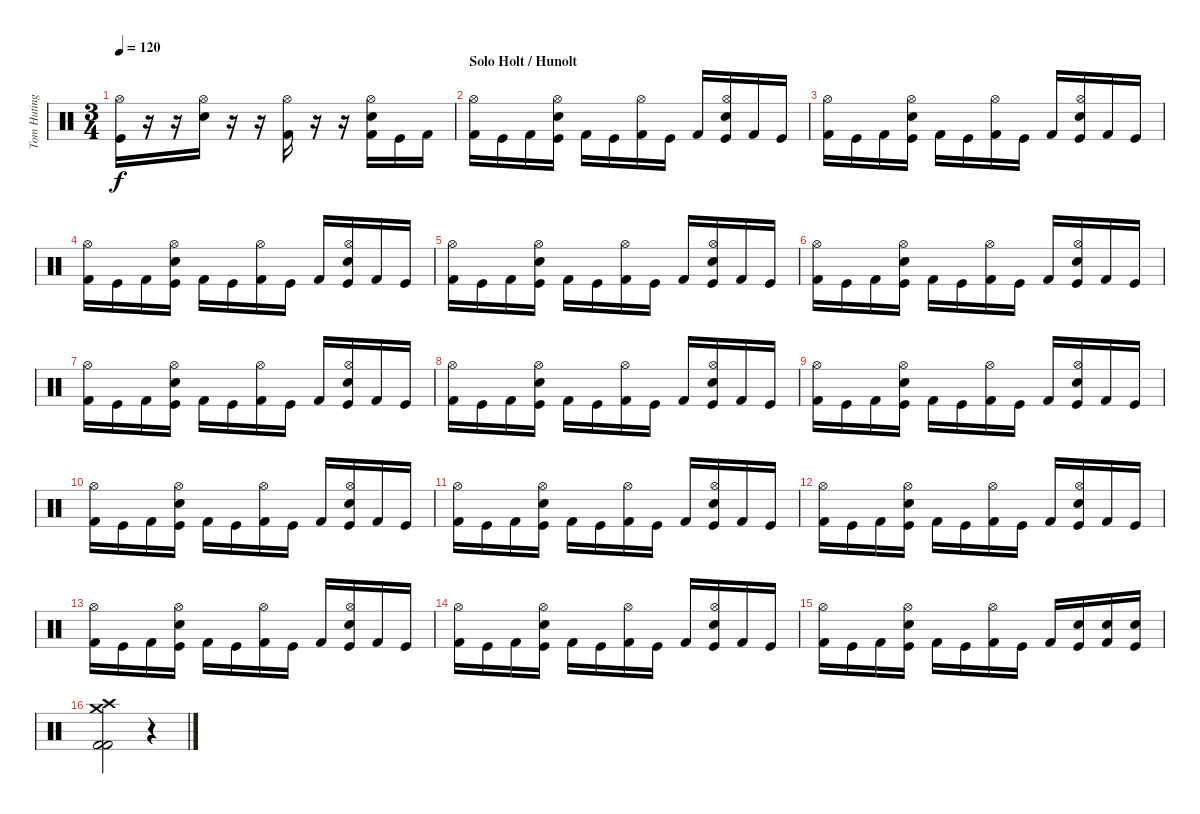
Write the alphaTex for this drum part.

\track ("Tom Huting" "Tom Huting") {instrument percussion}
\staff {score}
\articulation defaults
\ts (3 4)
\tempo 120
\clef neutral
\ks c
("Kick (hit)" "Hi-Hat (open)").16{dy f} r.16 r.16 ("Snare (hit) 2" "Hi-Hat (open)").16 r.16 r.16 ("Kick (hit) 2" "Hi-Hat (open)").16 r.16 r.16 ("Kick (hit) 2" "Snare (hit) 2" "Hi-Hat (open)").16 "Kick (hit)".16 "Kick (hit) 2".16 |
\section ("" "Solo Holt / Hunolt")
("Kick (hit) 2" "Hi-Hat (open)").16 "Kick (hit)".16 "Kick (hit) 2".16 ("Kick (hit)" "Snare (hit) 2" "Hi-Hat (open)").16 "Kick (hit) 2".16 "Kick (hit)".16 ("Kick (hit) 2" "Hi-Hat (open)").16 "Kick (hit)".16 "Kick (hit) 2".16 ("Kick (hit)" "Snare (hit) 2" "Hi-Hat (open)").16 "Kick (hit) 2".16 "Kick (hit)".16 |
("Kick (hit) 2" "Hi-Hat (open)").16 "Kick (hit)".16 "Kick (hit) 2".16 ("Kick (hit)" "Snare (hit) 2" "Hi-Hat (open)").16 "Kick (hit) 2".16 "Kick (hit)".16 ("Kick (hit) 2" "Hi-Hat (open)").16 "Kick (hit)".16 "Kick (hit) 2".16 ("Kick (hit)" "Snare (hit) 2" "Hi-Hat (open)").16 "Kick (hit) 2".16 "Kick (hit)".16 |
("Kick (hit) 2" "Hi-Hat (open)").16 "Kick (hit)".16 "Kick (hit) 2".16 ("Kick (hit)" "Snare (hit) 2" "Hi-Hat (open)").16 "Kick (hit) 2".16 "Kick (hit)".16 ("Kick (hit) 2" "Hi-Hat (open)").16 "Kick (hit)".16 "Kick (hit) 2".16 ("Kick (hit)" "Snare (hit) 2" "Hi-Hat (open)").16 "Kick (hit) 2".16 "Kick (hit)".16 |
("Kick (hit) 2" "Hi-Hat (open)").16 "Kick (hit)".16 "Kick (hit) 2".16 ("Kick (hit)" "Snare (hit) 2" "Hi-Hat (open)").16 "Kick (hit) 2".16 "Kick (hit)".16 ("Kick (hit) 2" "Hi-Hat (open)").16 "Kick (hit)".16 "Kick (hit) 2".16 ("Kick (hit)" "Snare (hit) 2" "Hi-Hat (open)").16 "Kick (hit) 2".16 "Kick (hit)".16 |
("Kick (hit) 2" "Hi-Hat (open)").16 "Kick (hit)".16 "Kick (hit) 2".16 ("Kick (hit)" "Snare (hit) 2" "Hi-Hat (open)").16 "Kick (hit) 2".16 "Kick (hit)".16 ("Kick (hit) 2" "Hi-Hat (open)").16 "Kick (hit)".16 "Kick (hit) 2".16 ("Kick (hit)" "Snare (hit) 2" "Hi-Hat (open)").16 "Kick (hit) 2".16 "Kick (hit)".16 |
("Kick (hit) 2" "Hi-Hat (open)").16 "Kick (hit)".16 "Kick (hit) 2".16 ("Kick (hit)" "Snare (hit) 2" "Hi-Hat (open)").16 "Kick (hit) 2".16 "Kick (hit)".16 ("Kick (hit) 2" "Hi-Hat (open)").16 "Kick (hit)".16 "Kick (hit) 2".16 ("Kick (hit)" "Snare (hit) 2" "Hi-Hat (open)").16 "Kick (hit) 2".16 "Kick (hit)".16 |
("Kick (hit) 2" "Hi-Hat (open)").16 "Kick (hit)".16 "Kick (hit) 2".16 ("Kick (hit)" "Snare (hit) 2" "Hi-Hat (open)").16 "Kick (hit) 2".16 "Kick (hit)".16 ("Kick (hit) 2" "Hi-Hat (open)").16 "Kick (hit)".16 "Kick (hit) 2".16 ("Kick (hit)" "Snare (hit) 2" "Hi-Hat (open)").16 "Kick (hit) 2".16 "Kick (hit)".16 |
("Kick (hit) 2" "Hi-Hat (open)").16 "Kick (hit)".16 "Kick (hit) 2".16 ("Kick (hit)" "Snare (hit) 2" "Hi-Hat (open)").16 "Kick (hit) 2".16 "Kick (hit)".16 ("Kick (hit) 2" "Hi-Hat (open)").16 "Kick (hit)".16 "Kick (hit) 2".16 ("Kick (hit)" "Snare (hit) 2" "Hi-Hat (open)").16 "Kick (hit) 2".16 "Kick (hit)".16 |
("Kick (hit) 2" "Hi-Hat (open)").16 "Kick (hit)".16 "Kick (hit) 2".16 ("Kick (hit)" "Snare (hit) 2" "Hi-Hat (open)").16 "Kick (hit) 2".16 "Kick (hit)".16 ("Kick (hit) 2" "Hi-Hat (open)").16 "Kick (hit)".16 "Kick (hit) 2".16 ("Kick (hit)" "Snare (hit) 2" "Hi-Hat (open)").16 "Kick (hit) 2".16 "Kick (hit)".16 |
("Kick (hit) 2" "Hi-Hat (open)").16 "Kick (hit)".16 "Kick (hit) 2".16 ("Kick (hit)" "Snare (hit) 2" "Hi-Hat (open)").16 "Kick (hit) 2".16 "Kick (hit)".16 ("Kick (hit) 2" "Hi-Hat (open)").16 "Kick (hit)".16 "Kick (hit) 2".16 ("Kick (hit)" "Snare (hit) 2" "Hi-Hat (open)").16 "Kick (hit) 2".16 "Kick (hit)".16 |
("Kick (hit) 2" "Hi-Hat (open)").16 "Kick (hit)".16 "Kick (hit) 2".16 ("Kick (hit)" "Snare (hit) 2" "Hi-Hat (open)").16 "Kick (hit) 2".16 "Kick (hit)".16 ("Kick (hit) 2" "Hi-Hat (open)").16 "Kick (hit)".16 "Kick (hit) 2".16 ("Kick (hit)" "Snare (hit) 2" "Hi-Hat (open)").16 "Kick (hit) 2".16 "Kick (hit)".16 |
("Kick (hit) 2" "Hi-Hat (open)").16 "Kick (hit)".16 "Kick (hit) 2".16 ("Kick (hit)" "Snare (hit) 2" "Hi-Hat (open)").16 "Kick (hit) 2".16 "Kick (hit)".16 ("Kick (hit) 2" "Hi-Hat (open)").16 "Kick (hit)".16 "Kick (hit) 2".16 ("Kick (hit)" "Snare (hit) 2" "Hi-Hat (open)").16 "Kick (hit) 2".16 "Kick (hit)".16 |
("Kick (hit) 2" "Hi-Hat (open)").16 "Kick (hit)".16 "Kick (hit) 2".16 ("Kick (hit)" "Snare (hit) 2" "Hi-Hat (open)").16 "Kick (hit) 2".16 "Kick (hit)".16 ("Kick (hit) 2" "Hi-Hat (open)").16 "Kick (hit)".16 "Kick (hit) 2".16 ("Kick (hit)" "Snare (hit) 2" "Hi-Hat (open)").16 "Kick (hit) 2".16 "Kick (hit)".16 |
("Kick (hit) 2" "Hi-Hat (open)").16 "Kick (hit)".16 "Kick (hit) 2".16 ("Kick (hit)" "Snare (hit) 2" "Hi-Hat (open)").16 "Kick (hit) 2".16 "Kick (hit)".16 ("Kick (hit) 2" "Hi-Hat (open)").16 "Kick (hit)".16 "Kick (hit) 2".16 ("Kick (hit)" "Snare (hit) 2").16 ("Kick (hit) 2" "Snare (hit) 2").16 ("Kick (hit)" "Snare (hit) 2").16 |
("Kick (hit) 2" "Kick (hit) 2" "Crash medium (hit)" "Crash high (hit)").2 r.4
